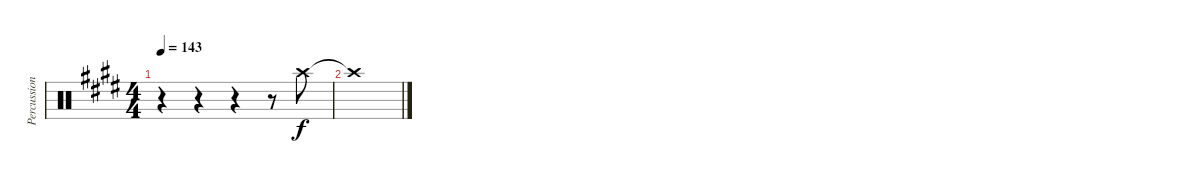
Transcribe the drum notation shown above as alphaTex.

\track ("Percussion" "Percussion") {instrument percussion}
\staff {score}
\articulation defaults
\ts (4 4)
\tempo 143
\clef neutral
\ks e
r.4{dy f} r.4 r.4 r.8 "Crash high (hit)".8 |
"Crash high (hit)"{t}.1
